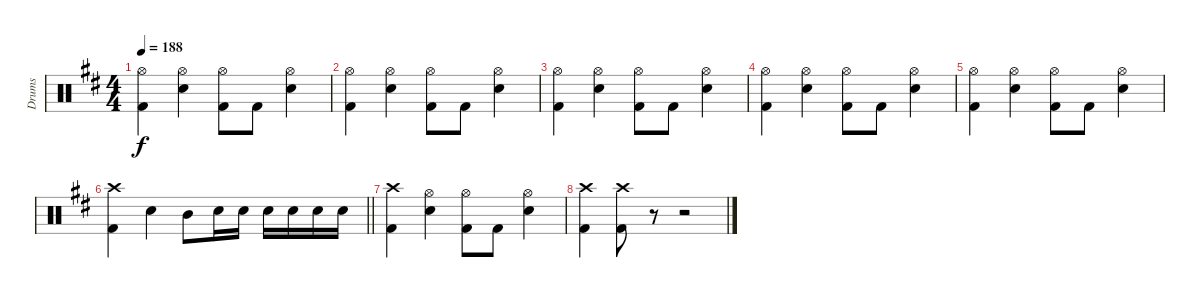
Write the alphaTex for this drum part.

\track ("Drums" "Drums") {instrument percussion}
\staff {score}
\articulation defaults
\ts (4 4)
\tempo 188
\clef neutral
\ks bminor
("Hi-Hat (open)" "Kick (hit) 2").4{dy f} ("Hi-Hat (open)" "Electric Snare (hit)").4 ("Hi-Hat (open)" "Kick (hit) 2").8 "Kick (hit) 2".8 ("Hi-Hat (open)" "Electric Snare (hit)").4 |
("Hi-Hat (open)" "Kick (hit) 2").4 ("Hi-Hat (open)" "Electric Snare (hit)").4 ("Hi-Hat (open)" "Kick (hit) 2").8 "Kick (hit) 2".8 ("Hi-Hat (open)" "Electric Snare (hit)").4 |
("Hi-Hat (open)" "Kick (hit) 2").4 ("Hi-Hat (open)" "Electric Snare (hit)").4 ("Hi-Hat (open)" "Kick (hit) 2").8 "Kick (hit) 2".8 ("Hi-Hat (open)" "Electric Snare (hit)").4 |
("Hi-Hat (open)" "Kick (hit) 2").4 ("Hi-Hat (open)" "Electric Snare (hit)").4 ("Hi-Hat (open)" "Kick (hit) 2").8 "Kick (hit) 2".8 ("Hi-Hat (open)" "Electric Snare (hit)").4 |
("Hi-Hat (open)" "Kick (hit) 2").4 ("Hi-Hat (open)" "Electric Snare (hit)").4 ("Hi-Hat (open)" "Kick (hit) 2").8 "Kick (hit) 2".8 ("Hi-Hat (open)" "Electric Snare (hit)").4 |
\barLineRight lightlight
("Crash high (hit)" "Kick (hit) 2").4 "Electric Snare (hit)".4 "Mid Tom (hit)".8 "Electric Snare (hit)".16 "Electric Snare (hit)".16 "Electric Snare (hit)".16 "Electric Snare (hit)".16 "Electric Snare (hit)".16 "Electric Snare (hit)".16 |
("Crash high (hit)" "Kick (hit) 2").4 ("Hi-Hat (open)" "Electric Snare (hit)").4 ("Hi-Hat (open)" "Kick (hit) 2").8 "Kick (hit) 2".8 ("Hi-Hat (open)" "Electric Snare (hit)").4 |
("Crash high (hit)" "Kick (hit) 2").4 ("Crash high (hit)" "Kick (hit) 2").8 r.8 r.2
